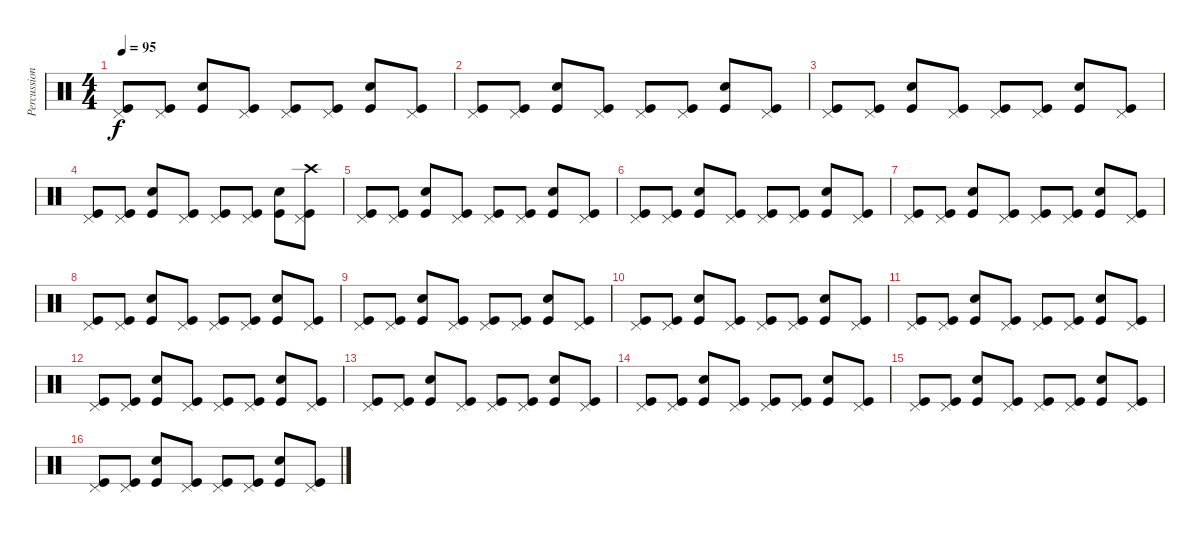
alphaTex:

\track ("Percussion" "Percussion") {instrument percussion}
\staff {score}
\articulation defaults
\ts (4 4)
\tempo 95
\clef neutral
\ks c
("Pedal Hi-Hat (hit)" "Kick (hit)").8{dy f} ("Pedal Hi-Hat (hit)" "Kick (hit)").8 ("Electric Snare (hit)" "Kick (hit)").8 ("Pedal Hi-Hat (hit)" "Kick (hit)").8 ("Pedal Hi-Hat (hit)" "Kick (hit)").8 ("Pedal Hi-Hat (hit)" "Kick (hit)").8 ("Electric Snare (hit)" "Kick (hit)").8 ("Pedal Hi-Hat (hit)" "Kick (hit)").8 |
("Pedal Hi-Hat (hit)" "Kick (hit)").8 ("Pedal Hi-Hat (hit)" "Kick (hit)").8 ("Electric Snare (hit)" "Kick (hit)").8 ("Pedal Hi-Hat (hit)" "Kick (hit)").8 ("Pedal Hi-Hat (hit)" "Kick (hit)").8 ("Pedal Hi-Hat (hit)" "Kick (hit)").8 ("Electric Snare (hit)" "Kick (hit)").8 ("Pedal Hi-Hat (hit)" "Kick (hit)").8 |
("Pedal Hi-Hat (hit)" "Kick (hit)").8 ("Pedal Hi-Hat (hit)" "Kick (hit)").8 ("Electric Snare (hit)" "Kick (hit)").8 ("Pedal Hi-Hat (hit)" "Kick (hit)").8 ("Pedal Hi-Hat (hit)" "Kick (hit)").8 ("Pedal Hi-Hat (hit)" "Kick (hit)").8 ("Electric Snare (hit)" "Kick (hit)").8 ("Pedal Hi-Hat (hit)" "Kick (hit)").8 |
("Pedal Hi-Hat (hit)" "Kick (hit)").8 ("Pedal Hi-Hat (hit)" "Kick (hit)").8 ("Electric Snare (hit)" "Kick (hit)").8 ("Pedal Hi-Hat (hit)" "Kick (hit)").8 ("Pedal Hi-Hat (hit)" "Kick (hit)").8 ("Pedal Hi-Hat (hit)" "Kick (hit)").8 ("Electric Snare (hit)" "Kick (hit)").8 ("Crash high (hit)" "Pedal Hi-Hat (hit)" "Kick (hit)").8 |
("Pedal Hi-Hat (hit)" "Kick (hit)").8 ("Pedal Hi-Hat (hit)" "Kick (hit)").8 ("Electric Snare (hit)" "Kick (hit)").8 ("Pedal Hi-Hat (hit)" "Kick (hit)").8 ("Pedal Hi-Hat (hit)" "Kick (hit)").8 ("Pedal Hi-Hat (hit)" "Kick (hit)").8 ("Electric Snare (hit)" "Kick (hit)").8 ("Pedal Hi-Hat (hit)" "Kick (hit)").8 |
("Pedal Hi-Hat (hit)" "Kick (hit)").8 ("Pedal Hi-Hat (hit)" "Kick (hit)").8 ("Electric Snare (hit)" "Kick (hit)").8 ("Pedal Hi-Hat (hit)" "Kick (hit)").8 ("Pedal Hi-Hat (hit)" "Kick (hit)").8 ("Pedal Hi-Hat (hit)" "Kick (hit)").8 ("Electric Snare (hit)" "Kick (hit)").8 ("Pedal Hi-Hat (hit)" "Kick (hit)").8 |
("Pedal Hi-Hat (hit)" "Kick (hit)").8 ("Pedal Hi-Hat (hit)" "Kick (hit)").8 ("Electric Snare (hit)" "Kick (hit)").8 ("Pedal Hi-Hat (hit)" "Kick (hit)").8 ("Pedal Hi-Hat (hit)" "Kick (hit)").8 ("Pedal Hi-Hat (hit)" "Kick (hit)").8 ("Electric Snare (hit)" "Kick (hit)").8 ("Pedal Hi-Hat (hit)" "Kick (hit)").8 |
("Pedal Hi-Hat (hit)" "Kick (hit)").8 ("Pedal Hi-Hat (hit)" "Kick (hit)").8 ("Electric Snare (hit)" "Kick (hit)").8 ("Pedal Hi-Hat (hit)" "Kick (hit)").8 ("Pedal Hi-Hat (hit)" "Kick (hit)").8 ("Pedal Hi-Hat (hit)" "Kick (hit)").8 ("Electric Snare (hit)" "Kick (hit)").8 ("Pedal Hi-Hat (hit)" "Kick (hit)").8 |
("Pedal Hi-Hat (hit)" "Kick (hit)").8 ("Pedal Hi-Hat (hit)" "Kick (hit)").8 ("Electric Snare (hit)" "Kick (hit)").8 ("Pedal Hi-Hat (hit)" "Kick (hit)").8 ("Pedal Hi-Hat (hit)" "Kick (hit)").8 ("Pedal Hi-Hat (hit)" "Kick (hit)").8 ("Electric Snare (hit)" "Kick (hit)").8 ("Pedal Hi-Hat (hit)" "Kick (hit)").8 |
("Pedal Hi-Hat (hit)" "Kick (hit)").8 ("Pedal Hi-Hat (hit)" "Kick (hit)").8 ("Electric Snare (hit)" "Kick (hit)").8 ("Pedal Hi-Hat (hit)" "Kick (hit)").8 ("Pedal Hi-Hat (hit)" "Kick (hit)").8 ("Pedal Hi-Hat (hit)" "Kick (hit)").8 ("Electric Snare (hit)" "Kick (hit)").8 ("Pedal Hi-Hat (hit)" "Kick (hit)").8 |
("Pedal Hi-Hat (hit)" "Kick (hit)").8 ("Pedal Hi-Hat (hit)" "Kick (hit)").8 ("Electric Snare (hit)" "Kick (hit)").8 ("Pedal Hi-Hat (hit)" "Kick (hit)").8 ("Pedal Hi-Hat (hit)" "Kick (hit)").8 ("Pedal Hi-Hat (hit)" "Kick (hit)").8 ("Electric Snare (hit)" "Kick (hit)").8 ("Pedal Hi-Hat (hit)" "Kick (hit)").8 |
("Pedal Hi-Hat (hit)" "Kick (hit)").8 ("Pedal Hi-Hat (hit)" "Kick (hit)").8 ("Electric Snare (hit)" "Kick (hit)").8 ("Pedal Hi-Hat (hit)" "Kick (hit)").8 ("Pedal Hi-Hat (hit)" "Kick (hit)").8 ("Pedal Hi-Hat (hit)" "Kick (hit)").8 ("Electric Snare (hit)" "Kick (hit)").8 ("Pedal Hi-Hat (hit)" "Kick (hit)").8 |
("Pedal Hi-Hat (hit)" "Kick (hit)").8 ("Pedal Hi-Hat (hit)" "Kick (hit)").8 ("Electric Snare (hit)" "Kick (hit)").8 ("Pedal Hi-Hat (hit)" "Kick (hit)").8 ("Pedal Hi-Hat (hit)" "Kick (hit)").8 ("Pedal Hi-Hat (hit)" "Kick (hit)").8 ("Electric Snare (hit)" "Kick (hit)").8 ("Pedal Hi-Hat (hit)" "Kick (hit)").8 |
("Pedal Hi-Hat (hit)" "Kick (hit)").8 ("Pedal Hi-Hat (hit)" "Kick (hit)").8 ("Electric Snare (hit)" "Kick (hit)").8 ("Pedal Hi-Hat (hit)" "Kick (hit)").8 ("Pedal Hi-Hat (hit)" "Kick (hit)").8 ("Pedal Hi-Hat (hit)" "Kick (hit)").8 ("Electric Snare (hit)" "Kick (hit)").8 ("Pedal Hi-Hat (hit)" "Kick (hit)").8 |
("Pedal Hi-Hat (hit)" "Kick (hit)").8 ("Pedal Hi-Hat (hit)" "Kick (hit)").8 ("Electric Snare (hit)" "Kick (hit)").8 ("Pedal Hi-Hat (hit)" "Kick (hit)").8 ("Pedal Hi-Hat (hit)" "Kick (hit)").8 ("Pedal Hi-Hat (hit)" "Kick (hit)").8 ("Electric Snare (hit)" "Kick (hit)").8 ("Pedal Hi-Hat (hit)" "Kick (hit)").8 |
("Pedal Hi-Hat (hit)" "Kick (hit)").8 ("Pedal Hi-Hat (hit)" "Kick (hit)").8 ("Electric Snare (hit)" "Kick (hit)").8 ("Pedal Hi-Hat (hit)" "Kick (hit)").8 ("Pedal Hi-Hat (hit)" "Kick (hit)").8 ("Pedal Hi-Hat (hit)" "Kick (hit)").8 ("Electric Snare (hit)" "Kick (hit)").8 ("Pedal Hi-Hat (hit)" "Kick (hit)").8
